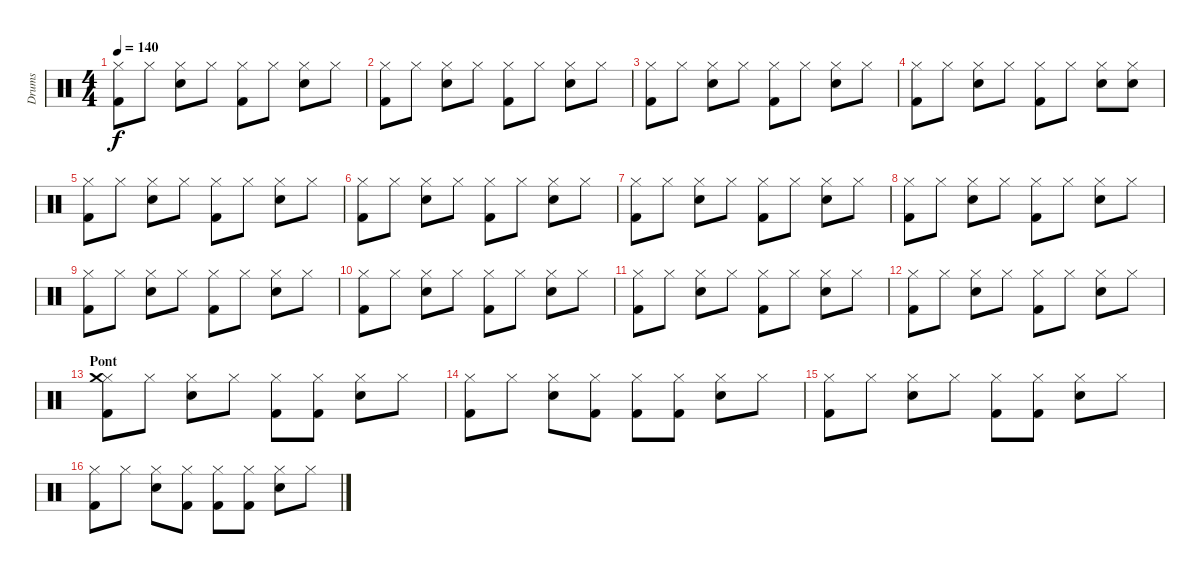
\track ("Drums" "Drums") {instrument percussion}
\staff {score}
\articulation defaults
\ts (4 4)
\tempo 140
\clef neutral
\ks c
("Hi-Hat (closed)" "Kick (hit) 2").8{dy f} "Hi-Hat (closed)".8 ("Hi-Hat (closed)" "Electric Snare (hit)").8 "Hi-Hat (closed)".8 ("Hi-Hat (closed)" "Kick (hit) 2").8 "Hi-Hat (closed)".8 ("Hi-Hat (closed)" "Electric Snare (hit)").8 "Hi-Hat (closed)".8 |
("Hi-Hat (closed)" "Kick (hit) 2").8 "Hi-Hat (closed)".8 ("Hi-Hat (closed)" "Electric Snare (hit)").8 "Hi-Hat (closed)".8 ("Hi-Hat (closed)" "Kick (hit) 2").8 "Hi-Hat (closed)".8 ("Hi-Hat (closed)" "Electric Snare (hit)").8 "Hi-Hat (closed)".8 |
("Hi-Hat (closed)" "Kick (hit) 2").8 "Hi-Hat (closed)".8 ("Hi-Hat (closed)" "Electric Snare (hit)").8 "Hi-Hat (closed)".8 ("Hi-Hat (closed)" "Kick (hit) 2").8 "Hi-Hat (closed)".8 ("Hi-Hat (closed)" "Electric Snare (hit)").8 "Hi-Hat (closed)".8 |
("Hi-Hat (closed)" "Kick (hit) 2").8 "Hi-Hat (closed)".8 ("Hi-Hat (closed)" "Electric Snare (hit)").8 "Hi-Hat (closed)".8 ("Hi-Hat (closed)" "Kick (hit) 2").8 "Hi-Hat (closed)".8 ("Hi-Hat (closed)" "Electric Snare (hit)").8 ("Hi-Hat (closed)" "Electric Snare (hit)").8 |
("Hi-Hat (closed)" "Kick (hit) 2").8 "Hi-Hat (closed)".8 ("Hi-Hat (closed)" "Electric Snare (hit)").8 "Hi-Hat (closed)".8 ("Hi-Hat (closed)" "Kick (hit) 2").8 "Hi-Hat (closed)".8 ("Hi-Hat (closed)" "Electric Snare (hit)").8 "Hi-Hat (closed)".8 |
("Hi-Hat (closed)" "Kick (hit) 2").8 "Hi-Hat (closed)".8 ("Hi-Hat (closed)" "Electric Snare (hit)").8 "Hi-Hat (closed)".8 ("Hi-Hat (closed)" "Kick (hit) 2").8 "Hi-Hat (closed)".8 ("Hi-Hat (closed)" "Electric Snare (hit)").8 "Hi-Hat (closed)".8 |
("Hi-Hat (closed)" "Kick (hit) 2").8 "Hi-Hat (closed)".8 ("Hi-Hat (closed)" "Electric Snare (hit)").8 "Hi-Hat (closed)".8 ("Hi-Hat (closed)" "Kick (hit) 2").8 "Hi-Hat (closed)".8 ("Hi-Hat (closed)" "Electric Snare (hit)").8 "Hi-Hat (closed)".8 |
("Hi-Hat (closed)" "Kick (hit) 2").8 "Hi-Hat (closed)".8 ("Hi-Hat (closed)" "Electric Snare (hit)").8 "Hi-Hat (closed)".8 ("Hi-Hat (closed)" "Kick (hit) 2").8 "Hi-Hat (closed)".8 ("Hi-Hat (closed)" "Electric Snare (hit)").8 "Hi-Hat (closed)".8 |
("Hi-Hat (closed)" "Kick (hit) 2").8 "Hi-Hat (closed)".8 ("Hi-Hat (closed)" "Electric Snare (hit)").8 "Hi-Hat (closed)".8 ("Hi-Hat (closed)" "Kick (hit) 2").8 "Hi-Hat (closed)".8 ("Hi-Hat (closed)" "Electric Snare (hit)").8 "Hi-Hat (closed)".8 |
("Hi-Hat (closed)" "Kick (hit) 2").8 "Hi-Hat (closed)".8 ("Hi-Hat (closed)" "Electric Snare (hit)").8 "Hi-Hat (closed)".8 ("Hi-Hat (closed)" "Kick (hit) 2").8 "Hi-Hat (closed)".8 ("Hi-Hat (closed)" "Electric Snare (hit)").8 "Hi-Hat (closed)".8 |
("Hi-Hat (closed)" "Kick (hit) 2").8 "Hi-Hat (closed)".8 ("Hi-Hat (closed)" "Electric Snare (hit)").8 "Hi-Hat (closed)".8 ("Hi-Hat (closed)" "Kick (hit) 2").8 "Hi-Hat (closed)".8 ("Hi-Hat (closed)" "Electric Snare (hit)").8 "Hi-Hat (closed)".8 |
("Hi-Hat (closed)" "Kick (hit) 2").8 "Hi-Hat (closed)".8 ("Hi-Hat (closed)" "Electric Snare (hit)").8 "Hi-Hat (closed)".8 ("Hi-Hat (closed)" "Kick (hit) 2").8 "Hi-Hat (closed)".8 ("Hi-Hat (closed)" "Electric Snare (hit)").8 "Hi-Hat (closed)".8 |
\section ("" "Pont")
("Hi-Hat (closed)" "Crash medium (hit)" "Kick (hit) 2").8 "Hi-Hat (closed)".8 ("Hi-Hat (closed)" "Electric Snare (hit)").8 "Hi-Hat (closed)".8 ("Hi-Hat (closed)" "Kick (hit) 2").8 ("Hi-Hat (closed)" "Kick (hit) 2").8 ("Hi-Hat (closed)" "Electric Snare (hit)").8 "Hi-Hat (closed)".8 |
("Hi-Hat (closed)" "Kick (hit) 2").8 "Hi-Hat (closed)".8 ("Hi-Hat (closed)" "Electric Snare (hit)").8 ("Hi-Hat (closed)" "Kick (hit) 2").8 ("Hi-Hat (closed)" "Kick (hit) 2").8 ("Hi-Hat (closed)" "Kick (hit) 2").8 ("Hi-Hat (closed)" "Electric Snare (hit)").8 "Hi-Hat (closed)".8 |
("Hi-Hat (closed)" "Kick (hit) 2").8 "Hi-Hat (closed)".8 ("Hi-Hat (closed)" "Electric Snare (hit)").8 "Hi-Hat (closed)".8 ("Hi-Hat (closed)" "Kick (hit) 2").8 ("Hi-Hat (closed)" "Kick (hit) 2").8 ("Hi-Hat (closed)" "Electric Snare (hit)").8 "Hi-Hat (closed)".8 |
("Hi-Hat (closed)" "Kick (hit) 2").8 "Hi-Hat (closed)".8 ("Hi-Hat (closed)" "Electric Snare (hit)").8 ("Hi-Hat (closed)" "Kick (hit) 2").8 ("Hi-Hat (closed)" "Kick (hit) 2").8 ("Hi-Hat (closed)" "Kick (hit) 2").8 ("Hi-Hat (closed)" "Electric Snare (hit)").8 "Hi-Hat (closed)".8
